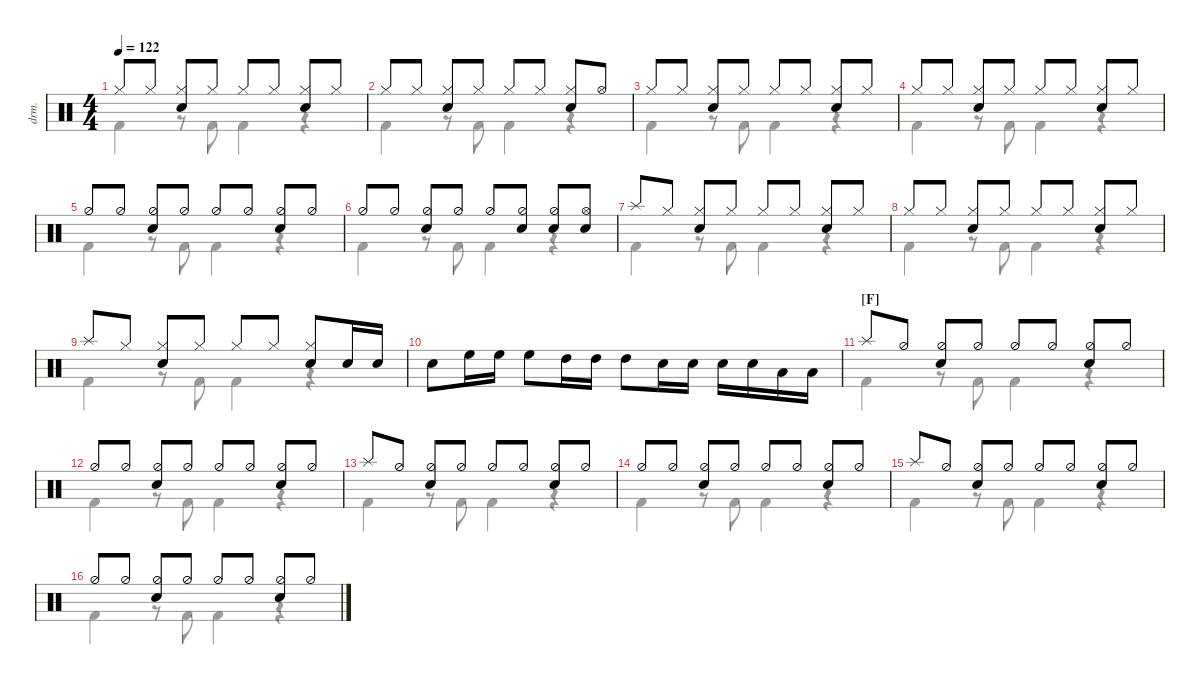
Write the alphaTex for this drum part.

\defaultSystemsLayout 4
\hideDynamics
\bracketExtendMode nobrackets
\track ("Drumkit" "drm.") {defaultSystemsLayout 4 instrument percussion}
\staff {score}
\articulation defaults
\voice
\ts (4 4)
\tempo 122
\clef neutral
\ks c "Hi-Hat (closed)".8{dy mf beam Up} "Hi-Hat (closed)".8{beam Up}
("Hi-Hat (closed)" "Snare (hit) 2").8{beam Up} "Hi-Hat (closed)".8{beam Up} "Hi-Hat (closed)".8{beam Up} "Hi-Hat (closed)".8{beam Up} ("Hi-Hat (closed)" "Snare (hit) 2").8{beam Up} "Hi-Hat (closed)".8{beam Up} |
"Hi-Hat (closed)".8{beam Up} "Hi-Hat (closed)".8{beam Up} ("Hi-Hat (closed)" "Snare (hit) 2").8{beam Up} "Hi-Hat (closed)".8{beam Up} "Hi-Hat (closed)".8{beam Up} "Hi-Hat (closed)".8{beam Up} ("Hi-Hat (closed)" "Snare (hit) 2").8{beam Up} "Hi-Hat (open)".8{beam Up} |
"Hi-Hat (closed)".8{beam Up} "Hi-Hat (closed)".8{beam Up} ("Hi-Hat (closed)" "Snare (hit) 2").8{beam Up} "Hi-Hat (closed)".8{beam Up} "Hi-Hat (closed)".8{beam Up} "Hi-Hat (closed)".8{beam Up} ("Hi-Hat (closed)" "Snare (hit) 2").8{beam Up} "Hi-Hat (closed)".8{beam Up} |
"Hi-Hat (closed)".8{beam Up} "Hi-Hat (closed)".8{beam Up} ("Hi-Hat (closed)" "Snare (hit) 2").8{beam Up} "Hi-Hat (closed)".8{beam Up} "Hi-Hat (closed)".8{beam Up} "Hi-Hat (closed)".8{beam Up} ("Hi-Hat (closed)" "Snare (hit) 2").8{beam Up} "Hi-Hat (closed)".8{beam Up} |
"Hi-Hat (half)".8{beam Up} "Hi-Hat (half)".8{beam Up} ("Hi-Hat (half)" "Snare (hit) 2").8{beam Up} "Hi-Hat (half)".8{beam Up} "Hi-Hat (half)".8{beam Up} "Hi-Hat (half)".8{beam Up} ("Hi-Hat (half)" "Snare (hit) 2").8{beam Up} "Hi-Hat (half)".8{beam Up} |
"Hi-Hat (half)".8{beam Up} "Hi-Hat (half)".8{beam Up} ("Hi-Hat (half)" "Snare (hit) 2").8{beam Up} "Hi-Hat (half)".8{beam Up} "Hi-Hat (half)".8{beam Up} ("Hi-Hat (half)" "Snare (hit) 2").8{beam Up} ("Hi-Hat (half)" "Snare (hit) 2").8{beam Up} ("Hi-Hat (open)" "Snare (hit) 2").8{beam Up} |
"Splash (hit)".8{beam Up} "Hi-Hat (closed)".8{beam Up} ("Hi-Hat (closed)" "Snare (hit) 2").8{beam Up} "Hi-Hat (closed)".8{beam Up} "Hi-Hat (closed)".8{beam Up} "Hi-Hat (closed)".8{beam Up} ("Hi-Hat (closed)" "Snare (hit) 2").8{beam Up} "Hi-Hat (closed)".8{beam Up} |
"Hi-Hat (closed)".8{beam Up} "Hi-Hat (closed)".8{beam Up} ("Hi-Hat (closed)" "Snare (hit) 2").8{beam Up} "Hi-Hat (closed)".8{beam Up} "Hi-Hat (closed)".8{beam Up} "Hi-Hat (closed)".8{beam Up} ("Hi-Hat (closed)" "Snare (hit) 2").8{beam Up} "Hi-Hat (closed)".8{beam Up} |
"Splash (hit)".8{beam Up} "Hi-Hat (closed)".8{beam Up} ("Hi-Hat (closed)" "Snare (hit) 2").8{beam Up} "Hi-Hat (closed)".8{beam Up} "Hi-Hat (closed)".8{beam Up} "Hi-Hat (closed)".8{beam Up} ("Hi-Hat (closed)" "Snare (hit) 2").8{beam Up} "Snare (hit) 2".16{beam Up} "Snare (hit) 2".16{beam Up} |
"Snare (hit) 2".8{beam Down} "High Floor Tom (hit)".16{beam Down} "High Floor Tom (hit)".16{beam Down} "High Floor Tom (hit)".8{beam Down} "High Tom (hit)".16{beam Down} "High Tom (hit)".16{beam Down} "High Tom (hit)".8{beam Down} "Snare (hit) 2".16{beam Down} "Snare (hit) 2".16{beam Down} "Snare (hit) 2".16{beam Down} "Snare (hit) 2".16{beam Down} "Low Tom (hit)".16{beam Down} "Low Tom (hit)".16{beam Down} |
\section ("F" "")
"Splash (hit)".8{beam Up} "Hi-Hat (half)".8{beam Up} ("Hi-Hat (half)" "Snare (hit) 2").8{beam Up} "Hi-Hat (half)".8{beam Up} "Hi-Hat (half)".8{beam Up} "Hi-Hat (half)".8{beam Up} ("Hi-Hat (half)" "Snare (hit) 2").8{beam Up} "Hi-Hat (half)".8{beam Up} |
"Hi-Hat (half)".8{beam Up} "Hi-Hat (half)".8{beam Up} ("Hi-Hat (half)" "Snare (hit) 2").8{beam Up} "Hi-Hat (half)".8{beam Up} "Hi-Hat (half)".8{beam Up} "Hi-Hat (half)".8{beam Up} ("Hi-Hat (half)" "Snare (hit) 2").8{beam Up} "Hi-Hat (half)".8{beam Up} |
"Splash (hit)".8{beam Up} "Hi-Hat (half)".8{beam Up} ("Hi-Hat (half)" "Snare (hit) 2").8{beam Up} "Hi-Hat (half)".8{beam Up} "Hi-Hat (half)".8{beam Up} "Hi-Hat (half)".8{beam Up} ("Hi-Hat (half)" "Snare (hit) 2").8{beam Up} "Hi-Hat (half)".8{beam Up} |
"Hi-Hat (half)".8{beam Up} "Hi-Hat (half)".8{beam Up} ("Hi-Hat (half)" "Snare (hit) 2").8{beam Up} "Hi-Hat (half)".8{beam Up} "Hi-Hat (half)".8{beam Up} "Hi-Hat (half)".8{beam Up} ("Hi-Hat (half)" "Snare (hit) 2").8{beam Up} "Hi-Hat (half)".8{beam Up} |
"Splash (hit)".8{beam Up} "Hi-Hat (half)".8{beam Up} ("Hi-Hat (half)" "Snare (hit) 2").8{beam Up} "Hi-Hat (half)".8{beam Up} "Hi-Hat (half)".8{beam Up} "Hi-Hat (half)".8{beam Up} ("Hi-Hat (half)" "Snare (hit) 2").8{beam Up} "Hi-Hat (half)".8{beam Up} |
"Hi-Hat (half)".8{beam Up} "Hi-Hat (half)".8{beam Up} ("Hi-Hat (half)" "Snare (hit) 2").8{beam Up} "Hi-Hat (half)".8{beam Up} "Hi-Hat (half)".8{beam Up} "Hi-Hat (half)".8{beam Up} ("Hi-Hat (half)" "Snare (hit) 2").8{beam Up} "Hi-Hat (half)".8{beam Up}
\voice
\clef neutral
\ottava regular
\simile none
\ks c
|
|
|
|
|
|
|
|
|
|
|
|
|
|
|
\voice
\clef neutral
\ottava regular
\simile none
\ks c "Kick (hit) 2".4{dy mf beam Down}
r.8{beam Down} "Kick (hit) 2".8{beam Down} "Kick (hit) 2".4{beam Down} r.4{beam Down} |
"Kick (hit) 2".4{beam Down} r.8{beam Down} "Kick (hit) 2".8{beam Down} "Kick (hit) 2".4{beam Down} r.4{beam Down} |
"Kick (hit) 2".4{beam Down} r.8{beam Down} "Kick (hit) 2".8{beam Down} "Kick (hit) 2".4{beam Down} r.4{beam Down} |
"Kick (hit) 2".4{beam Down} r.8{beam Down} "Kick (hit) 2".8{beam Down} "Kick (hit) 2".4{beam Down} r.4{beam Down} |
"Kick (hit) 2".4{beam Down} r.8{beam Down} "Kick (hit) 2".8{beam Down} "Kick (hit) 2".4{beam Down} r.4{beam Down} |
"Kick (hit) 2".4{beam Down} r.8{beam Down} "Kick (hit) 2".8{beam Down} "Kick (hit) 2".4{beam Down} r.4{beam Down} |
"Kick (hit) 2".4{beam Down} r.8{beam Down} "Kick (hit) 2".8{beam Down} "Kick (hit) 2".4{beam Down} r.4{beam Down} |
"Kick (hit) 2".4{beam Down} r.8{beam Down} "Kick (hit) 2".8{beam Down} "Kick (hit) 2".4{beam Down} r.4{beam Down} |
"Kick (hit) 2".4{beam Down} r.8{beam Down} "Kick (hit) 2".8{beam Down} "Kick (hit) 2".4{beam Down} r.4{beam Down} |
|
"Kick (hit) 2".4{beam Down} r.8{beam Down} "Kick (hit) 2".8{beam Down} "Kick (hit) 2".4{beam Down} r.4{beam Down} |
"Kick (hit) 2".4{beam Down} r.8{beam Down} "Kick (hit) 2".8{beam Down} "Kick (hit) 2".4{beam Down} r.4{beam Down} |
"Kick (hit) 2".4{beam Down} r.8{beam Down} "Kick (hit) 2".8{beam Down} "Kick (hit) 2".4{beam Down} r.4{beam Down} |
"Kick (hit) 2".4{beam Down} r.8{beam Down} "Kick (hit) 2".8{beam Down} "Kick (hit) 2".4{beam Down} r.4{beam Down} |
"Kick (hit) 2".4{beam Down} r.8{beam Down} "Kick (hit) 2".8{beam Down} "Kick (hit) 2".4{beam Down} r.4{beam Down} |
"Kick (hit) 2".4{beam Down} r.8{beam Down} "Kick (hit) 2".8{beam Down} "Kick (hit) 2".4{beam Down} r.4{beam Down}
